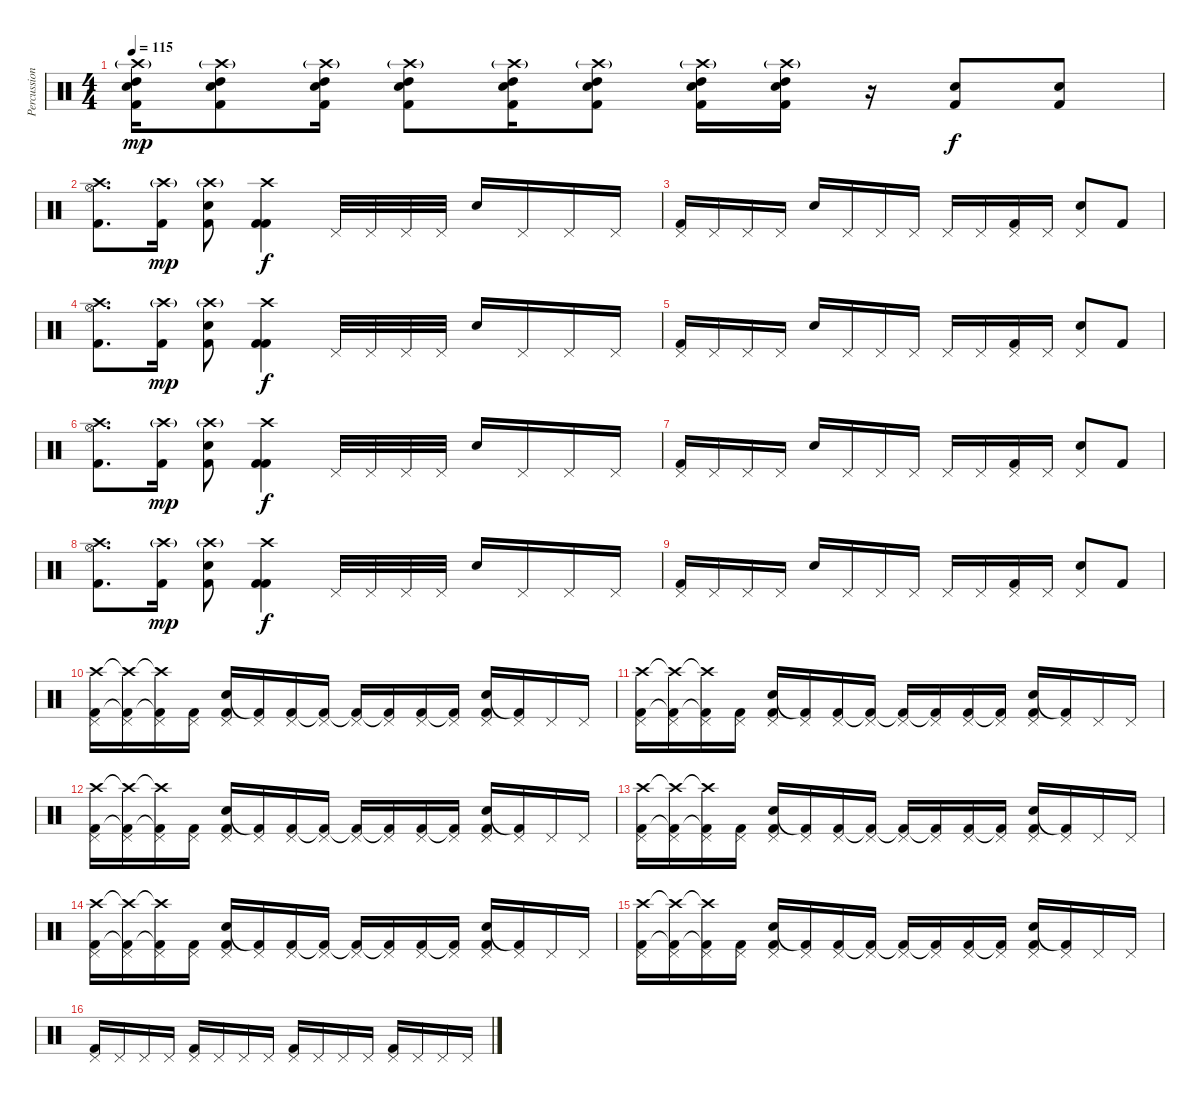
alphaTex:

\track ("Percussion" "Percussion") {instrument percussion}
\staff {score}
\articulation defaults
\ts (4 4)
\tempo 115
\clef neutral
\ks c
("Crash high (hit)"{g} "High Tom (hit)" "Snare (hit) 2" "Kick (hit) 2").16{dy mp} ("Crash high (hit)"{g} "High Tom (hit)" "Snare (hit) 2" "Kick (hit) 2").8 ("Crash high (hit)"{g} "High Tom (hit)" "Snare (hit) 2" "Kick (hit) 2").16 ("Crash high (hit)"{g} "High Tom (hit)" "Snare (hit) 2" "Kick (hit) 2").8 ("Crash high (hit)"{g} "High Tom (hit)" "Snare (hit) 2" "Kick (hit) 2").16 ("Crash high (hit)"{g} "High Tom (hit)" "Snare (hit) 2" "Kick (hit) 2").8 ("Crash high (hit)"{g} "High Tom (hit)" "Snare (hit) 2" "Kick (hit) 2").16 ("Crash high (hit)"{g} "High Tom (hit)" "Snare (hit) 2" "Kick (hit) 2").16 r.16 ("Snare (hit) 2" "Kick (hit) 2").8{dy f} ("Snare (hit) 2" "Kick (hit) 2").8 |
("Crash high (hit)" "Hi-Hat (open)" "Kick (hit) 2").8{d} ("Crash high (hit)"{g} "Kick (hit) 2").16{dy mp} ("Crash high (hit)"{g} "Snare (hit) 2" "Kick (hit) 2").8 ("Crash high (hit)" "Kick (hit) 2" "Kick (hit) 2").4{dy f} "Pedal Hi-Hat (hit)".32 "Pedal Hi-Hat (hit)".32 "Pedal Hi-Hat (hit)".32 "Pedal Hi-Hat (hit)".32 "Snare (hit) 2".16 "Pedal Hi-Hat (hit)".16 "Pedal Hi-Hat (hit)".16 "Pedal Hi-Hat (hit)".16 |
("Pedal Hi-Hat (hit)" "Kick (hit) 2").16 "Pedal Hi-Hat (hit)".16 "Pedal Hi-Hat (hit)".16 "Pedal Hi-Hat (hit)".16 "Snare (hit) 2".16 "Pedal Hi-Hat (hit)".16 "Pedal Hi-Hat (hit)".16 "Pedal Hi-Hat (hit)".16 "Pedal Hi-Hat (hit)".16 "Pedal Hi-Hat (hit)".16 ("Pedal Hi-Hat (hit)" "Kick (hit) 2").16 "Pedal Hi-Hat (hit)".16 ("Pedal Hi-Hat (hit)" "Snare (hit) 2").8 "Kick (hit) 2".8 |
("Crash high (hit)" "Hi-Hat (open)" "Kick (hit) 2").8{d} ("Crash high (hit)"{g} "Kick (hit) 2").16{dy mp} ("Crash high (hit)"{g} "Snare (hit) 2" "Kick (hit) 2").8 ("Crash high (hit)" "Kick (hit) 2" "Kick (hit) 2").4{dy f} "Pedal Hi-Hat (hit)".32 "Pedal Hi-Hat (hit)".32 "Pedal Hi-Hat (hit)".32 "Pedal Hi-Hat (hit)".32 "Snare (hit) 2".16 "Pedal Hi-Hat (hit)".16 "Pedal Hi-Hat (hit)".16 "Pedal Hi-Hat (hit)".16 |
("Pedal Hi-Hat (hit)" "Kick (hit) 2").16 "Pedal Hi-Hat (hit)".16 "Pedal Hi-Hat (hit)".16 "Pedal Hi-Hat (hit)".16 "Snare (hit) 2".16 "Pedal Hi-Hat (hit)".16 "Pedal Hi-Hat (hit)".16 "Pedal Hi-Hat (hit)".16 "Pedal Hi-Hat (hit)".16 "Pedal Hi-Hat (hit)".16 ("Pedal Hi-Hat (hit)" "Kick (hit) 2").16 "Pedal Hi-Hat (hit)".16 ("Pedal Hi-Hat (hit)" "Snare (hit) 2").8 "Kick (hit) 2".8 |
("Crash high (hit)" "Hi-Hat (open)" "Kick (hit) 2").8{d} ("Crash high (hit)"{g} "Kick (hit) 2").16{dy mp} ("Crash high (hit)"{g} "Snare (hit) 2" "Kick (hit) 2").8 ("Crash high (hit)" "Kick (hit) 2" "Kick (hit) 2").4{dy f} "Pedal Hi-Hat (hit)".32 "Pedal Hi-Hat (hit)".32 "Pedal Hi-Hat (hit)".32 "Pedal Hi-Hat (hit)".32 "Snare (hit) 2".16 "Pedal Hi-Hat (hit)".16 "Pedal Hi-Hat (hit)".16 "Pedal Hi-Hat (hit)".16 |
("Pedal Hi-Hat (hit)" "Kick (hit) 2").16 "Pedal Hi-Hat (hit)".16 "Pedal Hi-Hat (hit)".16 "Pedal Hi-Hat (hit)".16 "Snare (hit) 2".16 "Pedal Hi-Hat (hit)".16 "Pedal Hi-Hat (hit)".16 "Pedal Hi-Hat (hit)".16 "Pedal Hi-Hat (hit)".16 "Pedal Hi-Hat (hit)".16 ("Pedal Hi-Hat (hit)" "Kick (hit) 2").16 "Pedal Hi-Hat (hit)".16 ("Pedal Hi-Hat (hit)" "Snare (hit) 2").8 "Kick (hit) 2".8 |
("Crash high (hit)" "Hi-Hat (open)" "Kick (hit) 2").8{d} ("Crash high (hit)"{g} "Kick (hit) 2").16{dy mp} ("Crash high (hit)"{g} "Snare (hit) 2" "Kick (hit) 2").8 ("Crash high (hit)" "Kick (hit) 2" "Kick (hit) 2").4{dy f} "Pedal Hi-Hat (hit)".32 "Pedal Hi-Hat (hit)".32 "Pedal Hi-Hat (hit)".32 "Pedal Hi-Hat (hit)".32 "Snare (hit) 2".16 "Pedal Hi-Hat (hit)".16 "Pedal Hi-Hat (hit)".16 "Pedal Hi-Hat (hit)".16 |
("Pedal Hi-Hat (hit)" "Kick (hit) 2").16 "Pedal Hi-Hat (hit)".16 "Pedal Hi-Hat (hit)".16 "Pedal Hi-Hat (hit)".16 "Snare (hit) 2".16 "Pedal Hi-Hat (hit)".16 "Pedal Hi-Hat (hit)".16 "Pedal Hi-Hat (hit)".16 "Pedal Hi-Hat (hit)".16 "Pedal Hi-Hat (hit)".16 ("Pedal Hi-Hat (hit)" "Kick (hit) 2").16 "Pedal Hi-Hat (hit)".16 ("Pedal Hi-Hat (hit)" "Snare (hit) 2").8 "Kick (hit) 2".8 |
("Crash high (hit)" "Pedal Hi-Hat (hit)" "Kick (hit) 2").16 ("Crash high (hit)"{t} "Pedal Hi-Hat (hit)" "Kick (hit) 2"{t}).16 ("Crash high (hit)"{t} "Pedal Hi-Hat (hit)" "Kick (hit) 2"{t}).16 ("Pedal Hi-Hat (hit)" "Kick (hit) 2").16 ("Pedal Hi-Hat (hit)" "Snare (hit) 2" "Kick (hit) 2").16 ("Pedal Hi-Hat (hit)" "Kick (hit) 2"{t}).16 ("Pedal Hi-Hat (hit)" "Kick (hit) 2").16 ("Pedal Hi-Hat (hit)" "Kick (hit) 2"{t}).16 ("Pedal Hi-Hat (hit)" "Kick (hit) 2"{t}).16 ("Pedal Hi-Hat (hit)" "Kick (hit) 2"{t}).16 ("Pedal Hi-Hat (hit)" "Kick (hit) 2").16 ("Pedal Hi-Hat (hit)" "Kick (hit) 2"{t}).16 ("Pedal Hi-Hat (hit)" "Snare (hit) 2" "Kick (hit) 2").16 ("Pedal Hi-Hat (hit)" "Kick (hit) 2"{t}).16 "Pedal Hi-Hat (hit)".16 "Pedal Hi-Hat (hit)".16 |
("Crash high (hit)" "Pedal Hi-Hat (hit)" "Kick (hit) 2").16 ("Crash high (hit)"{t} "Pedal Hi-Hat (hit)" "Kick (hit) 2"{t}).16 ("Crash high (hit)"{t} "Pedal Hi-Hat (hit)" "Kick (hit) 2"{t}).16 ("Pedal Hi-Hat (hit)" "Kick (hit) 2").16 ("Pedal Hi-Hat (hit)" "Snare (hit) 2" "Kick (hit) 2").16 ("Pedal Hi-Hat (hit)" "Kick (hit) 2"{t}).16 ("Pedal Hi-Hat (hit)" "Kick (hit) 2").16 ("Pedal Hi-Hat (hit)" "Kick (hit) 2"{t}).16 ("Pedal Hi-Hat (hit)" "Kick (hit) 2"{t}).16 ("Pedal Hi-Hat (hit)" "Kick (hit) 2"{t}).16 ("Pedal Hi-Hat (hit)" "Kick (hit) 2").16 ("Pedal Hi-Hat (hit)" "Kick (hit) 2"{t}).16 ("Pedal Hi-Hat (hit)" "Snare (hit) 2" "Kick (hit) 2").16 ("Pedal Hi-Hat (hit)" "Kick (hit) 2"{t}).16 "Pedal Hi-Hat (hit)".16 "Pedal Hi-Hat (hit)".16 |
("Crash high (hit)" "Pedal Hi-Hat (hit)" "Kick (hit) 2").16 ("Crash high (hit)"{t} "Pedal Hi-Hat (hit)" "Kick (hit) 2"{t}).16 ("Crash high (hit)"{t} "Pedal Hi-Hat (hit)" "Kick (hit) 2"{t}).16 ("Pedal Hi-Hat (hit)" "Kick (hit) 2").16 ("Pedal Hi-Hat (hit)" "Snare (hit) 2" "Kick (hit) 2").16 ("Pedal Hi-Hat (hit)" "Kick (hit) 2"{t}).16 ("Pedal Hi-Hat (hit)" "Kick (hit) 2").16 ("Pedal Hi-Hat (hit)" "Kick (hit) 2"{t}).16 ("Pedal Hi-Hat (hit)" "Kick (hit) 2"{t}).16 ("Pedal Hi-Hat (hit)" "Kick (hit) 2"{t}).16 ("Pedal Hi-Hat (hit)" "Kick (hit) 2").16 ("Pedal Hi-Hat (hit)" "Kick (hit) 2"{t}).16 ("Pedal Hi-Hat (hit)" "Snare (hit) 2" "Kick (hit) 2").16 ("Pedal Hi-Hat (hit)" "Kick (hit) 2"{t}).16 "Pedal Hi-Hat (hit)".16 "Pedal Hi-Hat (hit)".16 |
("Crash high (hit)" "Pedal Hi-Hat (hit)" "Kick (hit) 2").16 ("Crash high (hit)"{t} "Pedal Hi-Hat (hit)" "Kick (hit) 2"{t}).16 ("Crash high (hit)"{t} "Pedal Hi-Hat (hit)" "Kick (hit) 2"{t}).16 ("Pedal Hi-Hat (hit)" "Kick (hit) 2").16 ("Pedal Hi-Hat (hit)" "Snare (hit) 2" "Kick (hit) 2").16 ("Pedal Hi-Hat (hit)" "Kick (hit) 2"{t}).16 ("Pedal Hi-Hat (hit)" "Kick (hit) 2").16 ("Pedal Hi-Hat (hit)" "Kick (hit) 2"{t}).16 ("Pedal Hi-Hat (hit)" "Kick (hit) 2"{t}).16 ("Pedal Hi-Hat (hit)" "Kick (hit) 2"{t}).16 ("Pedal Hi-Hat (hit)" "Kick (hit) 2").16 ("Pedal Hi-Hat (hit)" "Kick (hit) 2"{t}).16 ("Pedal Hi-Hat (hit)" "Snare (hit) 2" "Kick (hit) 2").16 ("Pedal Hi-Hat (hit)" "Kick (hit) 2"{t}).16 "Pedal Hi-Hat (hit)".16 "Pedal Hi-Hat (hit)".16 |
("Crash high (hit)" "Pedal Hi-Hat (hit)" "Kick (hit) 2").16 ("Crash high (hit)"{t} "Pedal Hi-Hat (hit)" "Kick (hit) 2"{t}).16 ("Crash high (hit)"{t} "Pedal Hi-Hat (hit)" "Kick (hit) 2"{t}).16 ("Pedal Hi-Hat (hit)" "Kick (hit) 2").16 ("Pedal Hi-Hat (hit)" "Snare (hit) 2" "Kick (hit) 2").16 ("Pedal Hi-Hat (hit)" "Kick (hit) 2"{t}).16 ("Pedal Hi-Hat (hit)" "Kick (hit) 2").16 ("Pedal Hi-Hat (hit)" "Kick (hit) 2"{t}).16 ("Pedal Hi-Hat (hit)" "Kick (hit) 2"{t}).16 ("Pedal Hi-Hat (hit)" "Kick (hit) 2"{t}).16 ("Pedal Hi-Hat (hit)" "Kick (hit) 2").16 ("Pedal Hi-Hat (hit)" "Kick (hit) 2"{t}).16 ("Pedal Hi-Hat (hit)" "Snare (hit) 2" "Kick (hit) 2").16 ("Pedal Hi-Hat (hit)" "Kick (hit) 2"{t}).16 "Pedal Hi-Hat (hit)".16 "Pedal Hi-Hat (hit)".16 |
("Crash high (hit)" "Pedal Hi-Hat (hit)" "Kick (hit) 2").16 ("Crash high (hit)"{t} "Pedal Hi-Hat (hit)" "Kick (hit) 2"{t}).16 ("Crash high (hit)"{t} "Pedal Hi-Hat (hit)" "Kick (hit) 2"{t}).16 ("Pedal Hi-Hat (hit)" "Kick (hit) 2").16 ("Pedal Hi-Hat (hit)" "Snare (hit) 2" "Kick (hit) 2").16 ("Pedal Hi-Hat (hit)" "Kick (hit) 2"{t}).16 ("Pedal Hi-Hat (hit)" "Kick (hit) 2").16 ("Pedal Hi-Hat (hit)" "Kick (hit) 2"{t}).16 ("Pedal Hi-Hat (hit)" "Kick (hit) 2"{t}).16 ("Pedal Hi-Hat (hit)" "Kick (hit) 2"{t}).16 ("Pedal Hi-Hat (hit)" "Kick (hit) 2").16 ("Pedal Hi-Hat (hit)" "Kick (hit) 2"{t}).16 ("Pedal Hi-Hat (hit)" "Snare (hit) 2" "Kick (hit) 2").16 ("Pedal Hi-Hat (hit)" "Kick (hit) 2"{t}).16 "Pedal Hi-Hat (hit)".16 "Pedal Hi-Hat (hit)".16 |
("Pedal Hi-Hat (hit)" "Kick (hit) 2").16 "Pedal Hi-Hat (hit)".16 "Pedal Hi-Hat (hit)".16 "Pedal Hi-Hat (hit)".16 ("Pedal Hi-Hat (hit)" "Kick (hit) 2").16 "Pedal Hi-Hat (hit)".16 "Pedal Hi-Hat (hit)".16 "Pedal Hi-Hat (hit)".16 ("Pedal Hi-Hat (hit)" "Kick (hit) 2").16 "Pedal Hi-Hat (hit)".16 "Pedal Hi-Hat (hit)".16 "Pedal Hi-Hat (hit)".16 ("Pedal Hi-Hat (hit)" "Kick (hit) 2").16 "Pedal Hi-Hat (hit)".16 "Pedal Hi-Hat (hit)".16 "Pedal Hi-Hat (hit)".16
